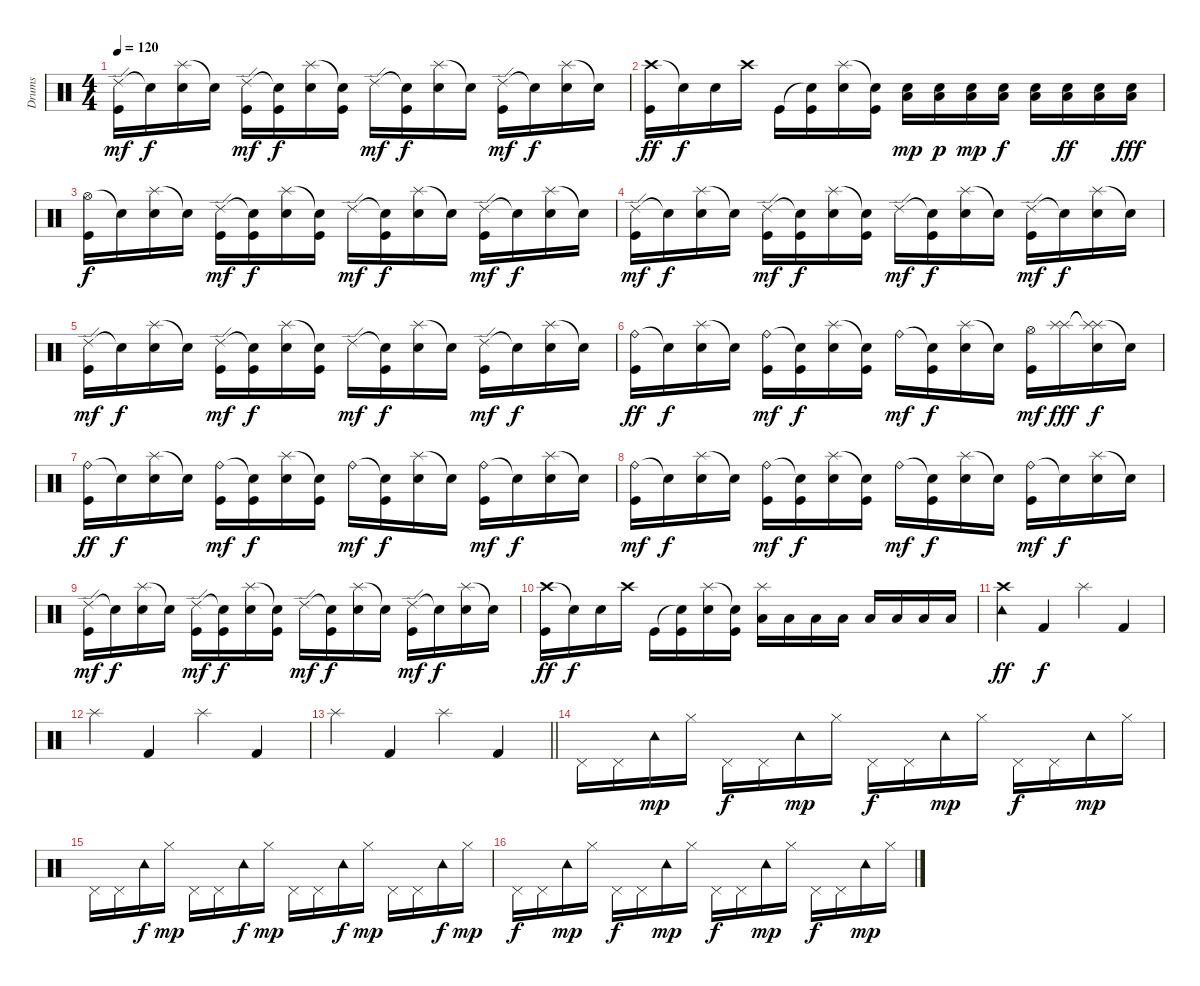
\track ("Drums" "Drums") {instrument percussion}
\staff {score}
\articulation defaults
\ts (4 4)
\tempo 120
\clef neutral
\ks c
("Ride (edge) 2" "Kick (hit)").16{dy mf} "Snare (hit)"{t}.16{dy f} ("Splash (hit)" "Electric Snare (hit)").16 "Snare (hit)"{t}.16 ("Ride (edge) 2" "Kick (hit)").16{dy mf} ("Snare (hit)"{t} "Kick (hit)").16{dy f} ("Splash (hit)" "Electric Snare (hit)").16 ("Snare (hit)"{t} "Kick (hit)").16 "Ride (edge) 2".16{dy mf} ("Snare (hit)"{t} "Kick (hit)").16{dy f} ("Splash (hit)" "Electric Snare (hit)").16 "Snare (hit)"{t}.16 ("Ride (edge) 2" "Kick (hit)").16{dy mf} "Snare (hit)"{t}.16{dy f} ("Splash (hit)" "Electric Snare (hit)").16 "Snare (hit)"{t}.16 |
("Crash high (hit)" "Kick (hit)").16{dy ff} "Snare (hit)"{t}.16{dy f} "Electric Snare (hit)".16 "Crash high (hit)".16 "Kick (hit)".16 ("Snare (hit)"{t} "Kick (hit)").16 ("Splash (hit)" "Electric Snare (hit)").16 ("Snare (hit)"{t} "Kick (hit)").16 ("Electric Snare (hit)" "Low Tom (hit)").16{dy mp} ("Electric Snare (hit)" "Low Tom (hit)").16{dy p} ("Electric Snare (hit)" "Low Tom (hit)").16{dy mp} ("Electric Snare (hit)" "Low Tom (hit)").16{dy f} ("Electric Snare (hit)" "Low Tom (hit)").16 ("Electric Snare (hit)" "Low Tom (hit)").16{dy ff} ("Electric Snare (hit)" "Low Tom (hit)").16 ("Electric Snare (hit)" "Low Tom (hit)").16{dy fff} |
("Hi-Hat (open)" "Kick (hit)").16{dy f} "Snare (hit)"{t}.16 ("Splash (hit)" "Electric Snare (hit)").16 "Snare (hit)"{t}.16 ("Ride (edge) 2" "Kick (hit)").16{dy mf} ("Snare (hit)"{t} "Kick (hit)").16{dy f} ("Splash (hit)" "Electric Snare (hit)").16 ("Snare (hit)"{t} "Kick (hit)").16 "Ride (edge) 2".16{dy mf} ("Snare (hit)"{t} "Kick (hit)").16{dy f} ("Splash (hit)" "Electric Snare (hit)").16 "Snare (hit)"{t}.16 ("Ride (edge) 2" "Kick (hit)").16{dy mf} "Snare (hit)"{t}.16{dy f} ("Splash (hit)" "Electric Snare (hit)").16 "Snare (hit)"{t}.16 |
("Ride (edge) 2" "Kick (hit)").16{dy mf} "Snare (hit)"{t}.16{dy f} ("Splash (hit)" "Electric Snare (hit)").16 "Snare (hit)"{t}.16 ("Ride (edge) 2" "Kick (hit)").16{dy mf} ("Snare (hit)"{t} "Kick (hit)").16{dy f} ("Splash (hit)" "Electric Snare (hit)").16 ("Snare (hit)"{t} "Kick (hit)").16 "Ride (edge) 2".16{dy mf} ("Snare (hit)"{t} "Kick (hit)").16{dy f} ("Splash (hit)" "Electric Snare (hit)").16 "Snare (hit)"{t}.16 ("Ride (edge) 2" "Kick (hit)").16{dy mf} "Snare (hit)"{t}.16{dy f} ("Splash (hit)" "Electric Snare (hit)").16 "Snare (hit)"{t}.16 |
("Ride (edge) 2" "Kick (hit)").16{dy mf} "Snare (hit)"{t}.16{dy f} ("Splash (hit)" "Electric Snare (hit)").16 "Snare (hit)"{t}.16 ("Ride (edge) 2" "Kick (hit)").16{dy mf} ("Snare (hit)"{t} "Kick (hit)").16{dy f} ("Splash (hit)" "Electric Snare (hit)").16 ("Snare (hit)"{t} "Kick (hit)").16 "Ride (edge) 2".16{dy mf} ("Snare (hit)"{t} "Kick (hit)").16{dy f} ("Splash (hit)" "Electric Snare (hit)").16 "Snare (hit)"{t}.16 ("Ride (edge) 2" "Kick (hit)").16{dy mf} "Snare (hit)"{t}.16{dy f} ("Splash (hit)" "Electric Snare (hit)").16 "Snare (hit)"{t}.16 |
("Ride (bell)" "Kick (hit)").16{dy ff} "Snare (hit)"{t}.16{dy f} ("Splash (hit)" "Electric Snare (hit)").16 "Snare (hit)"{t}.16 ("Ride (bell)" "Kick (hit)").16{dy mf} ("Snare (hit)"{t} "Kick (hit)").16{dy f} ("Splash (hit)" "Electric Snare (hit)").16 ("Snare (hit)"{t} "Kick (hit)").16 "Ride (bell)".16{dy mf} ("Snare (hit)"{t} "Kick (hit)").16{dy f} ("Splash (hit)" "Electric Snare (hit)").16 "Snare (hit)"{t}.16 ("Hi-Hat (open)" "Kick (hit)").16{dy mf} ("Splash (hit)" "Splash (hit)").16{dy fff} ("Splash (hit)"{t} "Splash (hit)"{t} "Electric Snare (hit)").16{dy f} "Snare (hit)"{t}.16 |
("Ride (bell)" "Kick (hit)").16{dy ff} "Snare (hit)"{t}.16{dy f} ("Splash (hit)" "Electric Snare (hit)").16 "Snare (hit)"{t}.16 ("Ride (bell)" "Kick (hit)").16{dy mf} ("Snare (hit)"{t} "Kick (hit)").16{dy f} ("Splash (hit)" "Electric Snare (hit)").16 ("Snare (hit)"{t} "Kick (hit)").16 "Ride (bell)".16{dy mf} ("Snare (hit)"{t} "Kick (hit)").16{dy f} ("Splash (hit)" "Electric Snare (hit)").16 "Snare (hit)"{t}.16 ("Ride (bell)" "Kick (hit)").16{dy mf} "Snare (hit)"{t}.16{dy f} ("Splash (hit)" "Electric Snare (hit)").16 "Snare (hit)"{t}.16 |
("Ride (bell)" "Kick (hit)").16{dy mf} "Snare (hit)"{t}.16{dy f} ("Splash (hit)" "Electric Snare (hit)").16 "Snare (hit)"{t}.16 ("Ride (bell)" "Kick (hit)").16{dy mf} ("Snare (hit)"{t} "Kick (hit)").16{dy f} ("Splash (hit)" "Electric Snare (hit)").16 ("Snare (hit)"{t} "Kick (hit)").16 "Ride (bell)".16{dy mf} ("Snare (hit)"{t} "Kick (hit)").16{dy f} ("Splash (hit)" "Electric Snare (hit)").16 "Snare (hit)"{t}.16 ("Ride (bell)" "Kick (hit)").16{dy mf} "Snare (hit)"{t}.16{dy f} ("Splash (hit)" "Electric Snare (hit)").16 "Snare (hit)"{t}.16 |
("Ride (edge) 2" "Kick (hit)").16{dy mf} "Snare (hit)"{t}.16{dy f} ("Splash (hit)" "Electric Snare (hit)").16 "Snare (hit)"{t}.16 ("Ride (edge) 2" "Kick (hit)").16{dy mf} ("Snare (hit)"{t} "Kick (hit)").16{dy f} ("Splash (hit)" "Electric Snare (hit)").16 ("Snare (hit)"{t} "Kick (hit)").16 "Ride (edge) 2".16{dy mf} ("Snare (hit)"{t} "Kick (hit)").16{dy f} ("Splash (hit)" "Electric Snare (hit)").16 "Snare (hit)"{t}.16 ("Ride (edge) 2" "Kick (hit)").16{dy mf} "Snare (hit)"{t}.16{dy f} ("Splash (hit)" "Electric Snare (hit)").16 "Snare (hit)"{t}.16 |
("Crash high (hit)" "Kick (hit)").16{dy ff} "Snare (hit)"{t}.16{dy f} "Electric Snare (hit)".16 "Crash high (hit)".16 "Kick (hit)".16 ("Snare (hit)"{t} "Kick (hit)").16 ("Splash (hit)" "Electric Snare (hit)").16 ("Snare (hit)"{t} "Kick (hit)").16 ("Splash (hit)" "Low Tom (hit)").16 "Low Tom (hit)".16 "Low Tom (hit)".16 "Low Tom (hit)".16 "Low Floor Tom (hit)".16 "Low Floor Tom (hit)".16 "Low Floor Tom (hit)".16 "Low Floor Tom (hit)".16 |
("Crash high (hit)" "Tambourine (hit)").4{dy ff} "Kick (hit) 2".4{dy f} "Splash (hit)".4 "Kick (hit) 2".4 |
"Splash (hit)".4 "Kick (hit) 2".4 "Splash (hit)".4 "Kick (hit) 2".4 |
\barLineRight lightlight "Splash (hit)".4 "Kick (hit) 2".4 "Splash (hit)".4 "Kick (hit) 2".4
|
\section ("" "")
"Pedal Hi-Hat (hit)".16 "Pedal Hi-Hat (hit)".16 "Tambourine (hit)".16{dy mp} "Hi-Hat (closed)".16 "Pedal Hi-Hat (hit)".16{dy f} "Pedal Hi-Hat (hit)".16 "Tambourine (hit)".16{dy mp} "Hi-Hat (closed)".16 "Pedal Hi-Hat (hit)".16{dy f} "Pedal Hi-Hat (hit)".16 "Tambourine (hit)".16{dy mp} "Hi-Hat (closed)".16 "Pedal Hi-Hat (hit)".16{dy f} "Pedal Hi-Hat (hit)".16 "Tambourine (hit)".16{dy mp} "Hi-Hat (closed)".16 |
"Pedal Hi-Hat (hit)".16 "Pedal Hi-Hat (hit)".16 "Tambourine (hit)".16{dy f} "Hi-Hat (closed)".16{dy mp} "Pedal Hi-Hat (hit)".16 "Pedal Hi-Hat (hit)".16 "Tambourine (hit)".16{dy f} "Hi-Hat (closed)".16{dy mp} "Pedal Hi-Hat (hit)".16 "Pedal Hi-Hat (hit)".16 "Tambourine (hit)".16{dy f} "Hi-Hat (closed)".16{dy mp} "Pedal Hi-Hat (hit)".16 "Pedal Hi-Hat (hit)".16 "Tambourine (hit)".16{dy f} "Hi-Hat (closed)".16{dy mp} |
"Pedal Hi-Hat (hit)".16{dy f} "Pedal Hi-Hat (hit)".16 "Tambourine (hit)".16{dy mp} "Hi-Hat (closed)".16 "Pedal Hi-Hat (hit)".16{dy f} "Pedal Hi-Hat (hit)".16 "Tambourine (hit)".16{dy mp} "Hi-Hat (closed)".16 "Pedal Hi-Hat (hit)".16{dy f} "Pedal Hi-Hat (hit)".16 "Tambourine (hit)".16{dy mp} "Hi-Hat (closed)".16 "Pedal Hi-Hat (hit)".16{dy f} "Pedal Hi-Hat (hit)".16 "Tambourine (hit)".16{dy mp} "Hi-Hat (closed)".16
